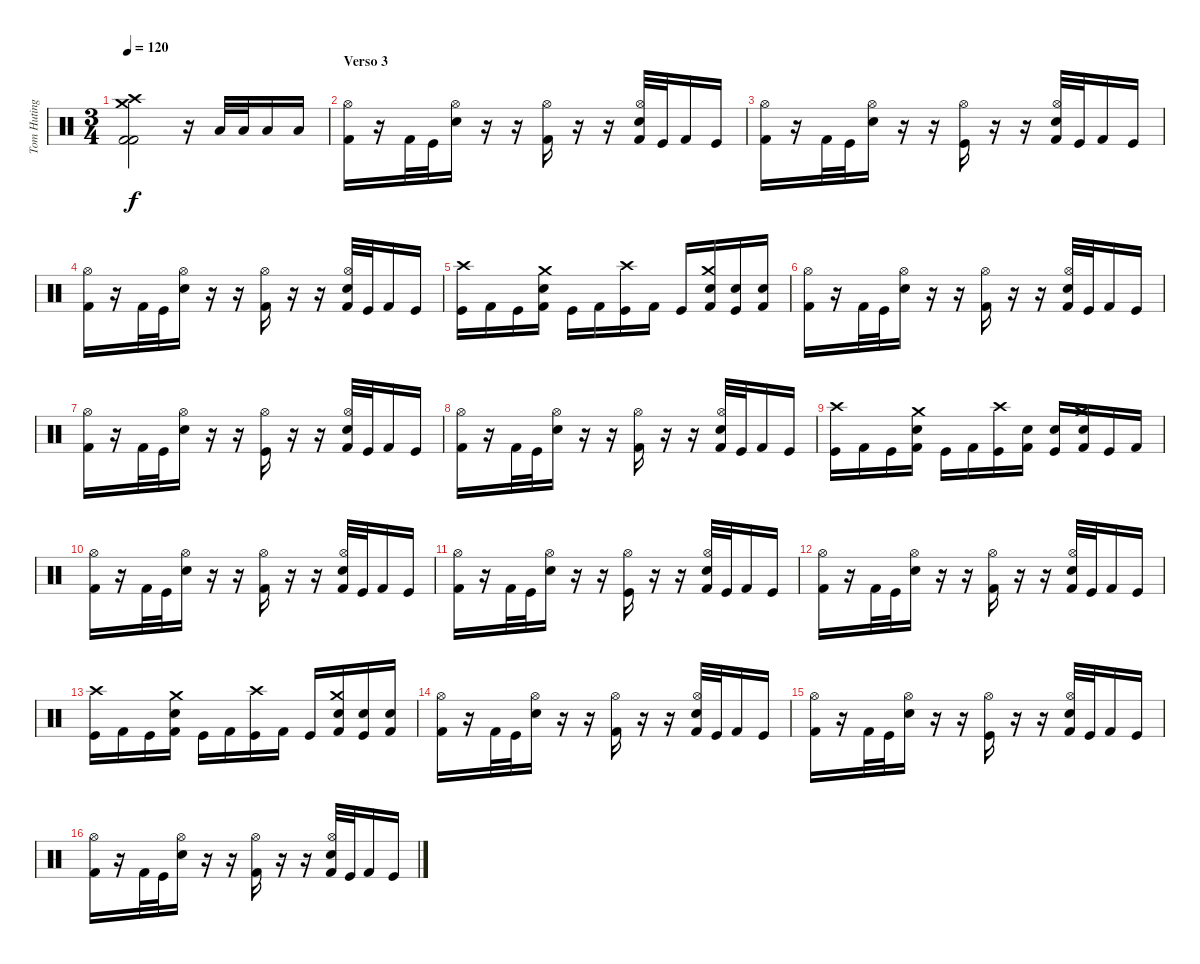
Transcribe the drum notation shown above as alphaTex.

\track ("Tom Huting" "Tom Huting") {instrument percussion}
\staff {score}
\articulation defaults
\ts (3 4)
\tempo 120
\clef neutral
\ks c
("Kick (hit) 2" "Kick (hit) 2" "Crash high (hit)" "Crash medium (hit)").2{dy f} r.16 "Low Tom (hit)".32 "Low Tom (hit)".32 "Low Tom (hit)".16 "Low Tom (hit)".16 |
\section ("" "Verso 3")
("Kick (hit) 2" "Hi-Hat (open)").16 r.16 "Kick (hit) 2".32 "Kick (hit)".32 ("Snare (hit) 2" "Hi-Hat (open)").16 r.16 r.16 ("Kick (hit) 2" "Hi-Hat (open)").16 r.16 r.16 ("Kick (hit) 2" "Snare (hit) 2" "Hi-Hat (open)").32 "Kick (hit)".32 "Kick (hit) 2".16 "Kick (hit)".16 |
("Kick (hit) 2" "Hi-Hat (open)").16 r.16 "Kick (hit) 2".32 "Kick (hit)".32 ("Snare (hit) 2" "Hi-Hat (open)").16 r.16 r.16 ("Kick (hit)" "Hi-Hat (open)").16 r.16 r.16 ("Kick (hit) 2" "Snare (hit) 2" "Hi-Hat (open)").32 "Kick (hit)".32 "Kick (hit) 2".16 "Kick (hit)".16 |
("Kick (hit) 2" "Hi-Hat (open)").16 r.16 "Kick (hit) 2".32 "Kick (hit)".32 ("Snare (hit) 2" "Hi-Hat (open)").16 r.16 r.16 ("Kick (hit) 2" "Hi-Hat (open)").16 r.16 r.16 ("Kick (hit) 2" "Snare (hit) 2" "Hi-Hat (open)").32 "Kick (hit)".32 "Kick (hit) 2".16 "Kick (hit)".16 |
("Kick (hit)" "Crash high (hit)").16 "Kick (hit) 2".16 "Kick (hit)".16 ("Kick (hit) 2" "Snare (hit) 2" "Crash medium (hit)").16 "Kick (hit)".16 "Kick (hit) 2".16 ("Kick (hit)" "Crash high (hit)").16 "Kick (hit) 2".16 "Kick (hit)".16 ("Kick (hit) 2" "Snare (hit) 2" "Crash medium (hit)").16 ("Kick (hit)" "Snare (hit) 2").16 ("Kick (hit) 2" "Snare (hit) 2").16 |
("Kick (hit) 2" "Hi-Hat (open)").16 r.16 "Kick (hit) 2".32 "Kick (hit)".32 ("Snare (hit) 2" "Hi-Hat (open)").16 r.16 r.16 ("Kick (hit) 2" "Hi-Hat (open)").16 r.16 r.16 ("Kick (hit) 2" "Snare (hit) 2" "Hi-Hat (open)").32 "Kick (hit)".32 "Kick (hit) 2".16 "Kick (hit)".16 |
("Kick (hit) 2" "Hi-Hat (open)").16 r.16 "Kick (hit) 2".32 "Kick (hit)".32 ("Snare (hit) 2" "Hi-Hat (open)").16 r.16 r.16 ("Kick (hit)" "Hi-Hat (open)").16 r.16 r.16 ("Kick (hit) 2" "Snare (hit) 2" "Hi-Hat (open)").32 "Kick (hit)".32 "Kick (hit) 2".16 "Kick (hit)".16 |
("Kick (hit) 2" "Hi-Hat (open)").16 r.16 "Kick (hit) 2".32 "Kick (hit)".32 ("Snare (hit) 2" "Hi-Hat (open)").16 r.16 r.16 ("Kick (hit) 2" "Hi-Hat (open)").16 r.16 r.16 ("Kick (hit) 2" "Snare (hit) 2" "Hi-Hat (open)").32 "Kick (hit)".32 "Kick (hit) 2".16 "Kick (hit)".16 |
("Kick (hit)" "Crash high (hit)").16 "Kick (hit) 2".16 "Kick (hit)".16 ("Kick (hit) 2" "Snare (hit) 2" "Crash medium (hit)").16 "Kick (hit)".16 "Kick (hit) 2".16 ("Kick (hit)" "Crash high (hit)").16 ("Kick (hit) 2" "Snare (hit) 2").16 ("Kick (hit)" "Snare (hit) 2").16 ("Kick (hit) 2" "Snare (hit) 2" "Crash medium (hit)").16 "Kick (hit)".16 "Kick (hit) 2".16 |
("Kick (hit) 2" "Hi-Hat (open)").16 r.16 "Kick (hit) 2".32 "Kick (hit)".32 ("Snare (hit) 2" "Hi-Hat (open)").16 r.16 r.16 ("Kick (hit) 2" "Hi-Hat (open)").16 r.16 r.16 ("Kick (hit) 2" "Snare (hit) 2" "Hi-Hat (open)").32 "Kick (hit)".32 "Kick (hit) 2".16 "Kick (hit)".16 |
("Kick (hit) 2" "Hi-Hat (open)").16 r.16 "Kick (hit) 2".32 "Kick (hit)".32 ("Snare (hit) 2" "Hi-Hat (open)").16 r.16 r.16 ("Kick (hit)" "Hi-Hat (open)").16 r.16 r.16 ("Kick (hit) 2" "Snare (hit) 2" "Hi-Hat (open)").32 "Kick (hit)".32 "Kick (hit) 2".16 "Kick (hit)".16 |
("Kick (hit) 2" "Hi-Hat (open)").16 r.16 "Kick (hit) 2".32 "Kick (hit)".32 ("Snare (hit) 2" "Hi-Hat (open)").16 r.16 r.16 ("Kick (hit) 2" "Hi-Hat (open)").16 r.16 r.16 ("Kick (hit) 2" "Snare (hit) 2" "Hi-Hat (open)").32 "Kick (hit)".32 "Kick (hit) 2".16 "Kick (hit)".16 |
("Kick (hit)" "Crash high (hit)").16 "Kick (hit) 2".16 "Kick (hit)".16 ("Kick (hit) 2" "Snare (hit) 2" "Crash medium (hit)").16 "Kick (hit)".16 "Kick (hit) 2".16 ("Kick (hit)" "Crash high (hit)").16 "Kick (hit) 2".16 "Kick (hit)".16 ("Kick (hit) 2" "Snare (hit) 2" "Crash medium (hit)").16 ("Kick (hit)" "Snare (hit) 2").16 ("Kick (hit) 2" "Snare (hit) 2").16 |
("Kick (hit) 2" "Hi-Hat (open)").16 r.16 "Kick (hit) 2".32 "Kick (hit)".32 ("Snare (hit) 2" "Hi-Hat (open)").16 r.16 r.16 ("Kick (hit) 2" "Hi-Hat (open)").16 r.16 r.16 ("Kick (hit) 2" "Snare (hit) 2" "Hi-Hat (open)").32 "Kick (hit)".32 "Kick (hit) 2".16 "Kick (hit)".16 |
("Kick (hit) 2" "Hi-Hat (open)").16 r.16 "Kick (hit) 2".32 "Kick (hit)".32 ("Snare (hit) 2" "Hi-Hat (open)").16 r.16 r.16 ("Kick (hit)" "Hi-Hat (open)").16 r.16 r.16 ("Kick (hit) 2" "Snare (hit) 2" "Hi-Hat (open)").32 "Kick (hit)".32 "Kick (hit) 2".16 "Kick (hit)".16 |
("Kick (hit) 2" "Hi-Hat (open)").16 r.16 "Kick (hit) 2".32 "Kick (hit)".32 ("Snare (hit) 2" "Hi-Hat (open)").16 r.16 r.16 ("Kick (hit) 2" "Hi-Hat (open)").16 r.16 r.16 ("Kick (hit) 2" "Snare (hit) 2" "Hi-Hat (open)").32 "Kick (hit)".32 "Kick (hit) 2".16 "Kick (hit)".16
